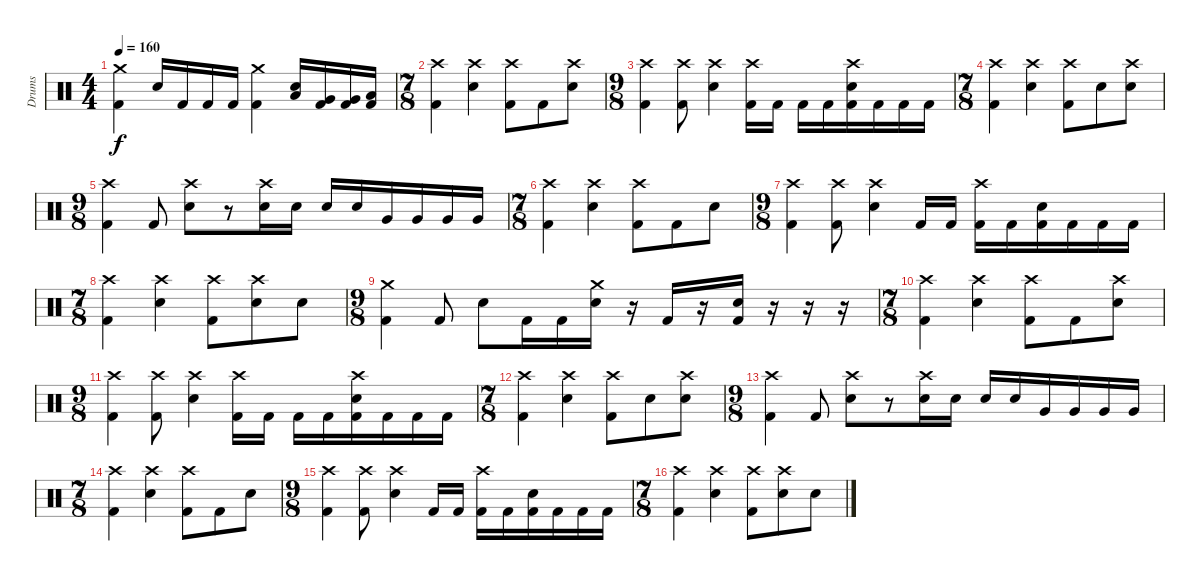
\track ("Drums" "Drums") {instrument percussion}
\staff {score}
\articulation defaults
\ts (4 4)
\tempo 160
\clef neutral
\ks c
("Crash medium (hit)" "Kick (hit) 2").4{dy f} "Snare (hit) 2".16 "Kick (hit) 2".16 "Kick (hit) 2".16 "Kick (hit) 2".16 ("Crash medium (hit)" "Kick (hit) 2").4 ("Low Floor Tom (hit)" "Snare (hit) 2").16 ("Very Low Tom (hit)" "Kick (hit) 2").16 ("Very Low Tom (hit)" "Kick (hit) 2").16 ("Low Floor Tom (hit)" "Kick (hit) 2").16 |
\ts (7 8)
("Crash high (hit)" "Kick (hit) 2").4 ("Crash high (hit)" "Snare (hit) 2").4 ("Crash high (hit)" "Kick (hit) 2").8 "Kick (hit) 2".8 ("Crash high (hit)" "Snare (hit) 2").8 |
\ts (9 8)
("Crash high (hit)" "Kick (hit) 2").4 ("Crash high (hit)" "Kick (hit) 2").8 ("Crash high (hit)" "Snare (hit) 2").4 ("Crash high (hit)" "Kick (hit) 2").16 "Kick (hit) 2".16 "Kick (hit) 2".16 "Kick (hit) 2".16 ("Crash high (hit)" "Kick (hit) 2" "Snare (hit) 2").16 "Kick (hit) 2".16 "Kick (hit) 2".16 "Kick (hit) 2".16 |
\ts (7 8)
("Crash high (hit)" "Kick (hit) 2").4 ("Crash high (hit)" "Snare (hit) 2").4 ("Crash high (hit)" "Kick (hit) 2").8 "Snare (hit) 2".8 ("Crash high (hit)" "Snare (hit) 2").8 |
\ts (9 8)
("Crash high (hit)" "Kick (hit) 2").4 "Kick (hit) 2".8 ("Crash high (hit)" "Snare (hit) 2").8 r.8 ("Crash high (hit)" "Snare (hit) 2").16 "Snare (hit) 2".16 "Snare (hit) 2".16 "Snare (hit) 2".16 "Very Low Tom (hit)".16 "Very Low Tom (hit)".16 "Very Low Tom (hit)".16 "Very Low Tom (hit)".16 |
\ts (7 8)
("Crash high (hit)" "Kick (hit) 2").4 ("Crash high (hit)" "Snare (hit) 2").4 ("Crash high (hit)" "Kick (hit) 2").8 "Kick (hit) 2".8 "Snare (hit) 2".8 |
\ts (9 8)
("Crash high (hit)" "Kick (hit) 2").4 ("Crash high (hit)" "Kick (hit) 2").8 ("Crash high (hit)" "Snare (hit) 2").4 "Kick (hit) 2".16 "Kick (hit) 2".16 ("Crash high (hit)" "Kick (hit) 2").16 "Kick (hit) 2".16 ("Kick (hit) 2" "Snare (hit) 2").16 "Kick (hit) 2".16 "Kick (hit) 2".16 "Kick (hit) 2".16 |
\ts (7 8)
("Crash high (hit)" "Kick (hit) 2").4 ("Crash high (hit)" "Snare (hit) 2").4 ("Crash high (hit)" "Kick (hit) 2").8 ("Crash high (hit)" "Snare (hit) 2").8 "Snare (hit) 2".8 |
\ts (9 8)
("Crash medium (hit)" "Kick (hit) 2").4 "Kick (hit) 2".8 "Snare (hit) 2".8 "Kick (hit) 2".16 "Kick (hit) 2".16 ("Crash medium (hit)" "Snare (hit) 2").16 r.16 "Kick (hit) 2".16 r.16 ("Snare (hit) 2" "Kick (hit) 2").16 r.16 r.16 r.16 |
\ts (7 8)
("Crash high (hit)" "Kick (hit) 2").4 ("Crash high (hit)" "Snare (hit) 2").4 ("Crash high (hit)" "Kick (hit) 2").8 "Kick (hit) 2".8 ("Crash high (hit)" "Snare (hit) 2").8 |
\ts (9 8)
("Crash high (hit)" "Kick (hit) 2").4 ("Crash high (hit)" "Kick (hit) 2").8 ("Crash high (hit)" "Snare (hit) 2").4 ("Crash high (hit)" "Kick (hit) 2").16 "Kick (hit) 2".16 "Kick (hit) 2".16 "Kick (hit) 2".16 ("Crash high (hit)" "Kick (hit) 2" "Snare (hit) 2").16 "Kick (hit) 2".16 "Kick (hit) 2".16 "Kick (hit) 2".16 |
\ts (7 8)
("Crash high (hit)" "Kick (hit) 2").4 ("Crash high (hit)" "Snare (hit) 2").4 ("Crash high (hit)" "Kick (hit) 2").8 "Snare (hit) 2".8 ("Crash high (hit)" "Snare (hit) 2").8 |
\ts (9 8)
("Crash high (hit)" "Kick (hit) 2").4 "Kick (hit) 2".8 ("Crash high (hit)" "Snare (hit) 2").8 r.8 ("Crash high (hit)" "Snare (hit) 2").16 "Snare (hit) 2".16 "Snare (hit) 2".16 "Snare (hit) 2".16 "Very Low Tom (hit)".16 "Very Low Tom (hit)".16 "Very Low Tom (hit)".16 "Very Low Tom (hit)".16 |
\ts (7 8)
("Crash high (hit)" "Kick (hit) 2").4 ("Crash high (hit)" "Snare (hit) 2").4 ("Crash high (hit)" "Kick (hit) 2").8 "Kick (hit) 2".8 "Snare (hit) 2".8 |
\ts (9 8)
("Crash high (hit)" "Kick (hit) 2").4 ("Crash high (hit)" "Kick (hit) 2").8 ("Crash high (hit)" "Snare (hit) 2").4 "Kick (hit) 2".16 "Kick (hit) 2".16 ("Crash high (hit)" "Kick (hit) 2").16 "Kick (hit) 2".16 ("Kick (hit) 2" "Snare (hit) 2").16 "Kick (hit) 2".16 "Kick (hit) 2".16 "Kick (hit) 2".16 |
\ts (7 8)
("Crash high (hit)" "Kick (hit) 2").4 ("Crash high (hit)" "Snare (hit) 2").4 ("Crash high (hit)" "Kick (hit) 2").8 ("Crash high (hit)" "Snare (hit) 2").8 "Snare (hit) 2".8
